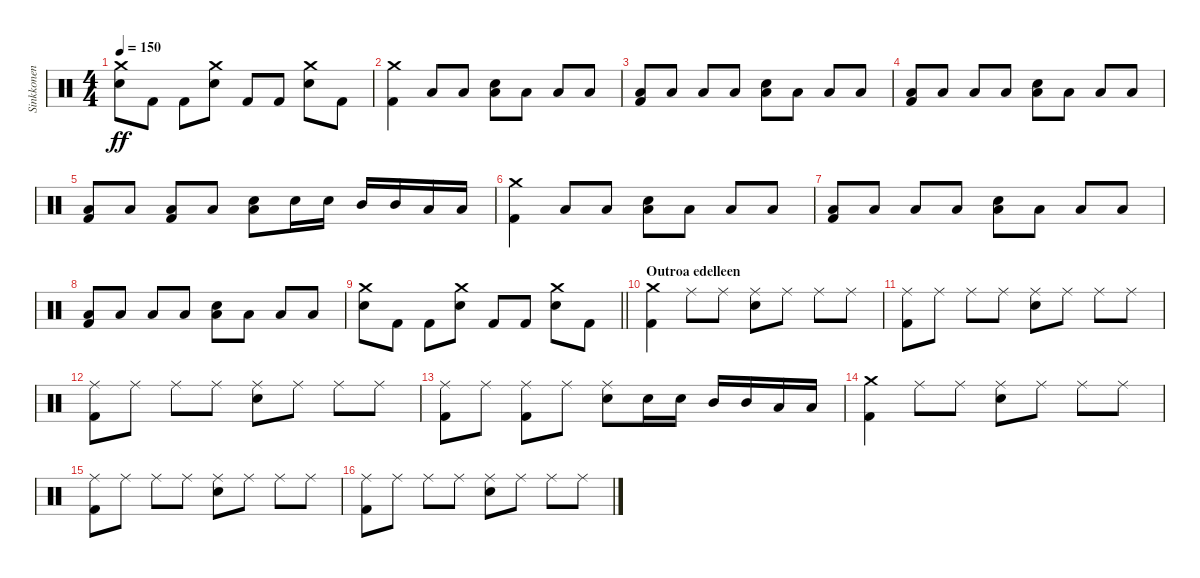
\track ("Sinkkonen" "Sinkkonen") {instrument percussion}
\staff {score}
\articulation defaults
\ts (4 4)
\tempo 150
\clef neutral
\ks c
("Crash medium (hit)" "Snare (hit) 2").8{dy ff} "Kick (hit) 2".8 "Kick (hit) 2".8 ("Crash medium (hit)" "Snare (hit) 2").8 "Kick (hit) 2".8 "Kick (hit) 2".8 ("Crash medium (hit)" "Snare (hit) 2").8 "Kick (hit) 2".8 |
("Crash medium (hit)" "Kick (hit) 2").4 "Low Floor Tom (hit)".8 "Low Floor Tom (hit)".8 ("Snare (hit) 2" "Low Floor Tom (hit)").8 "Low Floor Tom (hit)".8 "Low Floor Tom (hit)".8 "Low Floor Tom (hit)".8 |
("Low Floor Tom (hit)" "Kick (hit) 2").8 "Low Floor Tom (hit)".8 "Low Floor Tom (hit)".8 "Low Floor Tom (hit)".8 ("Snare (hit) 2" "Low Floor Tom (hit)").8 "Low Floor Tom (hit)".8 "Low Floor Tom (hit)".8 "Low Floor Tom (hit)".8 |
("Low Floor Tom (hit)" "Kick (hit) 2").8 "Low Floor Tom (hit)".8 "Low Floor Tom (hit)".8 "Low Floor Tom (hit)".8 ("Snare (hit) 2" "Low Floor Tom (hit)").8 "Low Floor Tom (hit)".8 "Low Floor Tom (hit)".8 "Low Floor Tom (hit)".8 |
("Low Floor Tom (hit)" "Kick (hit) 2").8 "Low Floor Tom (hit)".8 ("Low Floor Tom (hit)" "Kick (hit) 2").8 "Low Floor Tom (hit)".8 ("Snare (hit) 2" "Low Floor Tom (hit)").8 "Snare (hit) 2".16 "Snare (hit) 2".16 "Mid Tom (hit)".16 "Mid Tom (hit)".16 "Low Tom (hit)".16 "Low Tom (hit)".16 |
("Crash medium (hit)" "Kick (hit) 2").4 "Low Floor Tom (hit)".8 "Low Floor Tom (hit)".8 ("Snare (hit) 2" "Low Floor Tom (hit)").8 "Low Floor Tom (hit)".8 "Low Floor Tom (hit)".8 "Low Floor Tom (hit)".8 |
("Low Floor Tom (hit)" "Kick (hit) 2").8 "Low Floor Tom (hit)".8 "Low Floor Tom (hit)".8 "Low Floor Tom (hit)".8 ("Snare (hit) 2" "Low Floor Tom (hit)").8 "Low Floor Tom (hit)".8 "Low Floor Tom (hit)".8 "Low Floor Tom (hit)".8 |
("Low Floor Tom (hit)" "Kick (hit) 2").8 "Low Floor Tom (hit)".8 "Low Floor Tom (hit)".8 "Low Floor Tom (hit)".8 ("Snare (hit) 2" "Low Floor Tom (hit)").8 "Low Floor Tom (hit)".8 "Low Floor Tom (hit)".8 "Low Floor Tom (hit)".8 |
\barLineRight lightlight
("Crash medium (hit)" "Snare (hit) 2").8 "Kick (hit) 2".8 "Kick (hit) 2".8 ("Crash medium (hit)" "Snare (hit) 2").8 "Kick (hit) 2".8 "Kick (hit) 2".8 ("Crash medium (hit)" "Snare (hit) 2").8 "Kick (hit) 2".8 |
\section ("" "Outroa edelleen")
("Crash medium (hit)" "Kick (hit) 2").4 "Ride (middle)".8 "Ride (middle)".8 ("Ride (middle)" "Snare (hit) 2").8 "Ride (middle)".8 "Ride (middle)".8 "Ride (middle)".8 |
("Ride (middle)" "Kick (hit) 2").8 "Ride (middle)".8 "Ride (middle)".8 "Ride (middle)".8 ("Ride (middle)" "Snare (hit) 2").8 "Ride (middle)".8 "Ride (middle)".8 "Ride (middle)".8 |
("Ride (middle)" "Kick (hit) 2").8 "Ride (middle)".8 "Ride (middle)".8 "Ride (middle)".8 ("Ride (middle)" "Snare (hit) 2").8 "Ride (middle)".8 "Ride (middle)".8 "Ride (middle)".8 |
("Ride (middle)" "Kick (hit) 2").8 "Ride (middle)".8 ("Ride (middle)" "Kick (hit) 2").8 "Ride (middle)".8 ("Ride (middle)" "Snare (hit) 2").8 "Snare (hit) 2".16 "Snare (hit) 2".16 "Mid Tom (hit)".16 "Mid Tom (hit)".16 "Low Tom (hit)".16 "Low Tom (hit)".16 |
("Crash medium (hit)" "Kick (hit) 2").4 "Ride (middle)".8 "Ride (middle)".8 ("Ride (middle)" "Snare (hit) 2").8 "Ride (middle)".8 "Ride (middle)".8 "Ride (middle)".8 |
("Ride (middle)" "Kick (hit) 2").8 "Ride (middle)".8 "Ride (middle)".8 "Ride (middle)".8 ("Ride (middle)" "Snare (hit) 2").8 "Ride (middle)".8 "Ride (middle)".8 "Ride (middle)".8 |
("Ride (middle)" "Kick (hit) 2").8 "Ride (middle)".8 "Ride (middle)".8 "Ride (middle)".8 ("Ride (middle)" "Snare (hit) 2").8 "Ride (middle)".8 "Ride (middle)".8 "Ride (middle)".8
